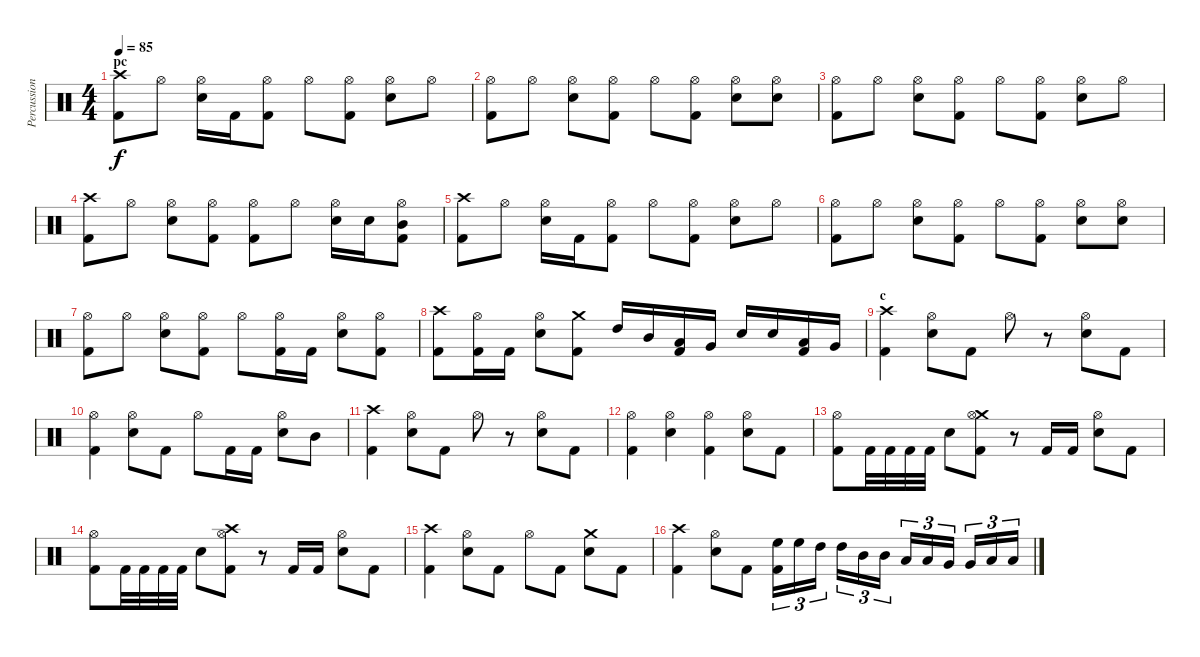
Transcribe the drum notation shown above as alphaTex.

\track ("Percussion" "Percussion") {instrument percussion}
\staff {score}
\articulation defaults
\ts (4 4)
\section ("" "pc")
\tempo 85
\clef neutral
\ks c
("Crash high (hit)" "Kick (hit) 2").8{dy f} "Hi-Hat (open)".8 ("Hi-Hat (open)" "Snare (hit) 2").16 "Kick (hit) 2".16 ("Hi-Hat (open)" "Kick (hit) 2").8 "Hi-Hat (open)".8 ("Hi-Hat (open)" "Kick (hit) 2").8 ("Hi-Hat (open)" "Snare (hit) 2").8 "Hi-Hat (open)".8 |
("Hi-Hat (open)" "Kick (hit) 2").8 "Hi-Hat (open)".8 ("Hi-Hat (open)" "Snare (hit) 2").8 ("Hi-Hat (open)" "Kick (hit) 2").8 "Hi-Hat (open)".8 ("Hi-Hat (open)" "Kick (hit) 2").8 ("Hi-Hat (open)" "Snare (hit) 2").8 ("Hi-Hat (open)" "Snare (hit) 2").8 |
("Hi-Hat (open)" "Kick (hit) 2").8 "Hi-Hat (open)".8 ("Hi-Hat (open)" "Snare (hit) 2").8 ("Hi-Hat (open)" "Kick (hit) 2").8 "Hi-Hat (open)".8 ("Hi-Hat (open)" "Kick (hit) 2").8 ("Hi-Hat (open)" "Snare (hit) 2").8 "Hi-Hat (open)".8 |
("Crash high (hit)" "Kick (hit) 2").8 "Hi-Hat (open)".8 ("Hi-Hat (open)" "Snare (hit) 2").8 ("Hi-Hat (open)" "Kick (hit) 2").8 ("Hi-Hat (open)" "Kick (hit) 2").8 "Hi-Hat (open)".8 ("Hi-Hat (open)" "Snare (hit) 2").16 "Snare (hit) 2".16 ("Hi-Hat (open)" "Mid Tom (hit)" "Kick (hit) 2").8 |
("Crash high (hit)" "Kick (hit) 2").8 "Hi-Hat (open)".8 ("Hi-Hat (open)" "Snare (hit) 2").16 "Kick (hit) 2".16 ("Hi-Hat (open)" "Kick (hit) 2").8 "Hi-Hat (open)".8 ("Hi-Hat (open)" "Kick (hit) 2").8 ("Hi-Hat (open)" "Snare (hit) 2").8 "Hi-Hat (open)".8 |
("Hi-Hat (open)" "Kick (hit) 2").8 "Hi-Hat (open)".8 ("Hi-Hat (open)" "Snare (hit) 2").8 ("Hi-Hat (open)" "Kick (hit) 2").8 "Hi-Hat (open)".8 ("Hi-Hat (open)" "Kick (hit) 2").8 ("Hi-Hat (open)" "Snare (hit) 2").8 ("Hi-Hat (open)" "Snare (hit) 2").8 |
("Hi-Hat (open)" "Kick (hit) 2").8 "Hi-Hat (open)".8 ("Hi-Hat (open)" "Snare (hit) 2").8 ("Hi-Hat (open)" "Kick (hit) 2").8 "Hi-Hat (open)".8 ("Hi-Hat (open)" "Kick (hit) 2").16 "Kick (hit) 2".16 ("Hi-Hat (open)" "Snare (hit) 2").8 ("Hi-Hat (open)" "Kick (hit) 2").8 |
("Crash high (hit)" "Kick (hit) 2").8 ("Hi-Hat (open)" "Kick (hit) 2").16 "Kick (hit) 2".16 ("Hi-Hat (open)" "Snare (hit) 2").8 ("Crash medium (hit)" "Kick (hit) 2").8 "High Tom (hit)".16 "Mid Tom (hit)".16 ("Low Tom (hit)" "Kick (hit) 2").16 "Very Low Tom (hit)".16 "Snare (hit) 2".16 "Snare (hit) 2".16 ("Low Tom (hit)" "Kick (hit) 2").16 "Very Low Tom (hit)".16 |
\section ("" "c")
("Crash high (hit)" "Kick (hit) 2").4 ("Hi-Hat (open)" "Snare (hit) 2").8 "Kick (hit) 2".8 "Hi-Hat (open)".8 r.8 ("Hi-Hat (open)" "Snare (hit) 2").8 "Kick (hit) 2".8 |
("Hi-Hat (open)" "Kick (hit) 2").4 ("Hi-Hat (open)" "Snare (hit) 2").8 "Kick (hit) 2".8 "Hi-Hat (open)".8 "Kick (hit) 2".16 "Kick (hit) 2".16 ("Hi-Hat (open)" "Snare (hit) 2").8 "Mid Tom (hit)".8 |
("Crash high (hit)" "Kick (hit) 2").4 ("Hi-Hat (open)" "Snare (hit) 2").8 "Kick (hit) 2".8 "Hi-Hat (open)".8 r.8 ("Hi-Hat (open)" "Snare (hit) 2").8 "Kick (hit) 2".8 |
("Hi-Hat (open)" "Kick (hit) 2").4 ("Hi-Hat (open)" "Snare (hit) 2").4 ("Hi-Hat (open)" "Kick (hit) 2").4 ("Hi-Hat (open)" "Snare (hit) 2").8 "Kick (hit) 2".8 |
("Hi-Hat (open)" "Kick (hit) 2").8 "Kick (hit) 2".32 "Kick (hit) 2".32 "Kick (hit) 2".32 "Kick (hit) 2".32 "Snare (hit) 2".8 ("Crash medium (hit)" "Hi-Hat (open)" "Kick (hit) 2").8 r.8 "Kick (hit) 2".16 "Kick (hit) 2".16 ("Hi-Hat (open)" "Snare (hit) 2").8 "Kick (hit) 2".8 |
("Hi-Hat (open)" "Kick (hit) 2").8 "Kick (hit) 2".32 "Kick (hit) 2".32 "Kick (hit) 2".32 "Kick (hit) 2".32 "Snare (hit) 2".8 ("Crash high (hit)" "Hi-Hat (open)" "Kick (hit) 2").8 r.8 "Kick (hit) 2".16 "Kick (hit) 2".16 ("Hi-Hat (open)" "Snare (hit) 2").8 "Kick (hit) 2".8 |
("Crash high (hit)" "Kick (hit) 2").4 ("Hi-Hat (open)" "Snare (hit) 2").8 "Kick (hit) 2".8 "Hi-Hat (open)".8 "Kick (hit) 2".8 ("Crash medium (hit)" "Snare (hit) 2").8 "Kick (hit) 2".8 |
("Crash high (hit)" "Kick (hit) 2").4 ("Hi-Hat (open)" "Snare (hit) 2").8 "Kick (hit) 2".8 ("High Floor Tom (hit)" "Kick (hit) 2").16{tu (3 2)} "High Floor Tom (hit)".16{tu (3 2)} "High Tom (hit)".16{tu (3 2)} "High Tom (hit)".16{tu (3 2)} "Mid Tom (hit)".16{tu (3 2)} "Mid Tom (hit)".16{tu (3 2)} "Low Tom (hit)".16{tu (3 2)} "Low Tom (hit)".16{tu (3 2)} "Very Low Tom (hit)".16{tu (3 2)} "Very Low Tom (hit)".16{tu (3 2)} "Low Floor Tom (hit)".16{tu (3 2)} "Low Floor Tom (hit)".16{tu (3 2)}
